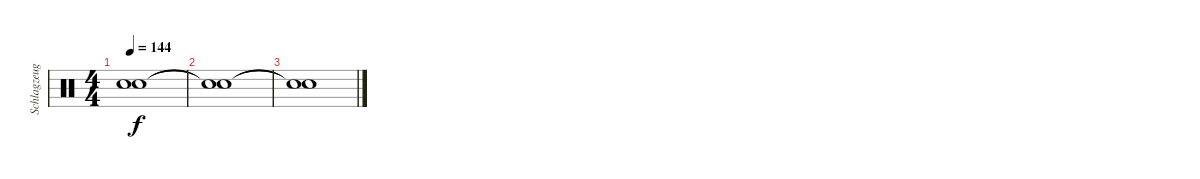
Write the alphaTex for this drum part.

\track ("Schlagzeug" "Schlagzeug") {instrument percussion}
\staff {score}
\articulation defaults
\ts (4 4)
\tempo 144
\clef neutral
\ks c
("Snare (hit)"{t} "Snare (hit)"{t}).1{dy f} |
("Snare (hit)"{t} "Snare (hit)"{t}).1 |
("Snare (hit)"{t} "Snare (hit)"{t}).1
